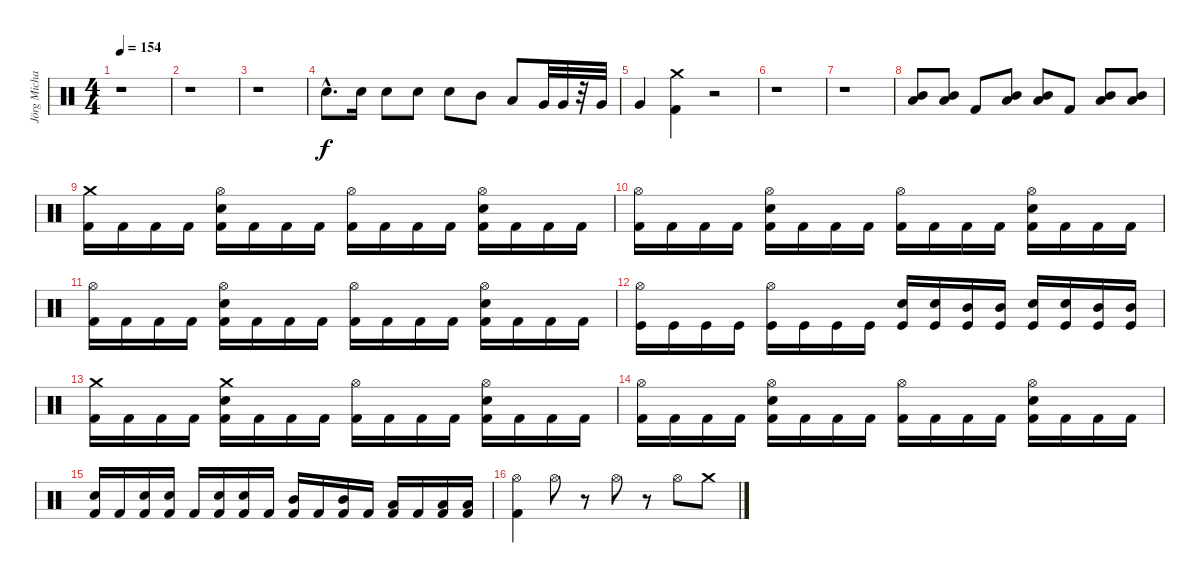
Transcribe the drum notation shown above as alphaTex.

\track ("Jörg Michael" "Jörg Micha") {instrument percussion}
\staff {score}
\articulation defaults
\ts (4 4)
\tempo 154
\clef neutral
\ks c
r.1{dy f} |
r.1 |
r.1 |
"Snare (hit) 2"{hac}.8{d} "Snare (hit) 2".16 "Snare (hit) 2".8 "Snare (hit) 2".8 "Snare (hit) 2".8 "Mid Tom (hit)".8 "Low Tom (hit)".8 "Very Low Tom (hit)".32 "Very Low Tom (hit)".32 r.32 "Very Low Tom (hit)".32 |
"Very Low Tom (hit)".4 ("Kick (hit) 2" "Crash medium (hit)").4 r.2 |
r.1 |
r.1 |
("Mid Tom (hit)" "Low Tom (hit)").8 ("Mid Tom (hit)" "Low Tom (hit)").8 "Kick (hit) 2".8 ("Mid Tom (hit)" "Low Tom (hit)").8 ("Mid Tom (hit)" "Low Tom (hit)").8 "Kick (hit) 2".8 ("Mid Tom (hit)" "Low Tom (hit)").8 ("Mid Tom (hit)" "Low Tom (hit)").8 |
("Crash medium (hit)" "Kick (hit) 2").16 "Kick (hit) 2".16 "Kick (hit) 2".16 "Kick (hit) 2".16 ("Snare (hit) 2" "Hi-Hat (open)" "Kick (hit) 2").16 "Kick (hit) 2".16 "Kick (hit) 2".16 "Kick (hit) 2".16 ("Hi-Hat (open)" "Kick (hit) 2").16 "Kick (hit) 2".16 "Kick (hit) 2".16 "Kick (hit) 2".16 ("Snare (hit) 2" "Hi-Hat (open)" "Kick (hit) 2").16 "Kick (hit) 2".16 "Kick (hit) 2".16 "Kick (hit) 2".16 |
("Hi-Hat (open)" "Kick (hit) 2").16 "Kick (hit) 2".16 "Kick (hit) 2".16 "Kick (hit) 2".16 ("Snare (hit) 2" "Hi-Hat (open)" "Kick (hit) 2").16 "Kick (hit) 2".16 "Kick (hit) 2".16 "Kick (hit) 2".16 ("Hi-Hat (open)" "Kick (hit) 2").16 "Kick (hit) 2".16 "Kick (hit) 2".16 "Kick (hit) 2".16 ("Snare (hit) 2" "Hi-Hat (open)" "Kick (hit) 2").16 "Kick (hit) 2".16 "Kick (hit) 2".16 "Kick (hit) 2".16 |
("Hi-Hat (open)" "Kick (hit) 2").16 "Kick (hit) 2".16 "Kick (hit) 2".16 "Kick (hit) 2".16 ("Snare (hit) 2" "Hi-Hat (open)" "Kick (hit) 2").16 "Kick (hit) 2".16 "Kick (hit) 2".16 "Kick (hit) 2".16 ("Hi-Hat (open)" "Kick (hit) 2").16 "Kick (hit) 2".16 "Kick (hit) 2".16 "Kick (hit) 2".16 ("Snare (hit) 2" "Hi-Hat (open)" "Kick (hit) 2").16 "Kick (hit) 2".16 "Kick (hit) 2".16 "Kick (hit) 2".16 |
("Hi-Hat (open)" "Kick (hit)").16 "Kick (hit)".16 "Kick (hit)".16 "Kick (hit)".16 ("Hi-Hat (open)" "Kick (hit)").16 "Kick (hit)".16 "Kick (hit)".16 "Kick (hit)".16 ("Snare (hit) 2" "Kick (hit)").16 ("Snare (hit) 2" "Kick (hit)").16 ("Mid Tom (hit)" "Kick (hit)").16 ("Mid Tom (hit)" "Kick (hit)").16 ("Snare (hit) 2" "Kick (hit)").16 ("Snare (hit) 2" "Kick (hit)").16 ("Mid Tom (hit)" "Kick (hit)").16 ("Mid Tom (hit)" "Kick (hit)").16 |
("Crash medium (hit)" "Kick (hit) 2").16 "Kick (hit) 2".16 "Kick (hit) 2".16 "Kick (hit) 2".16 ("Crash medium (hit)" "Snare (hit) 2" "Kick (hit) 2").16 "Kick (hit) 2".16 "Kick (hit) 2".16 "Kick (hit) 2".16 ("Hi-Hat (open)" "Kick (hit) 2").16 "Kick (hit) 2".16 "Kick (hit) 2".16 "Kick (hit) 2".16 ("Snare (hit) 2" "Hi-Hat (open)" "Kick (hit) 2").16 "Kick (hit) 2".16 "Kick (hit) 2".16 "Kick (hit) 2".16 |
("Hi-Hat (open)" "Kick (hit) 2").16 "Kick (hit) 2".16 "Kick (hit) 2".16 "Kick (hit) 2".16 ("Snare (hit) 2" "Hi-Hat (open)" "Kick (hit) 2").16 "Kick (hit) 2".16 "Kick (hit) 2".16 "Kick (hit) 2".16 ("Hi-Hat (open)" "Kick (hit) 2").16 "Kick (hit) 2".16 "Kick (hit) 2".16 "Kick (hit) 2".16 ("Snare (hit) 2" "Hi-Hat (open)" "Kick (hit) 2").16 "Kick (hit) 2".16 "Kick (hit) 2".16 "Kick (hit) 2".16 |
("Snare (hit) 2" "Kick (hit) 2").16 "Kick (hit) 2".16 ("Snare (hit) 2" "Kick (hit) 2").16 ("Snare (hit) 2" "Kick (hit) 2").16 "Kick (hit) 2".16 ("Snare (hit) 2" "Kick (hit) 2").16 ("Snare (hit) 2" "Kick (hit) 2").16 "Kick (hit) 2".16 ("Mid Tom (hit)" "Kick (hit) 2").16 "Kick (hit) 2".16 ("Mid Tom (hit)" "Kick (hit) 2").16 "Kick (hit) 2".16 ("Low Tom (hit)" "Kick (hit) 2").16 "Kick (hit) 2".16 ("Low Tom (hit)" "Kick (hit) 2").16 ("Low Tom (hit)" "Kick (hit) 2").16 |
("Kick (hit) 2" "Hi-Hat (open)").4 "Hi-Hat (open)".8 r.8 "Hi-Hat (open)".8 r.8 "Hi-Hat (open)".8 "Crash medium (hit)".8
